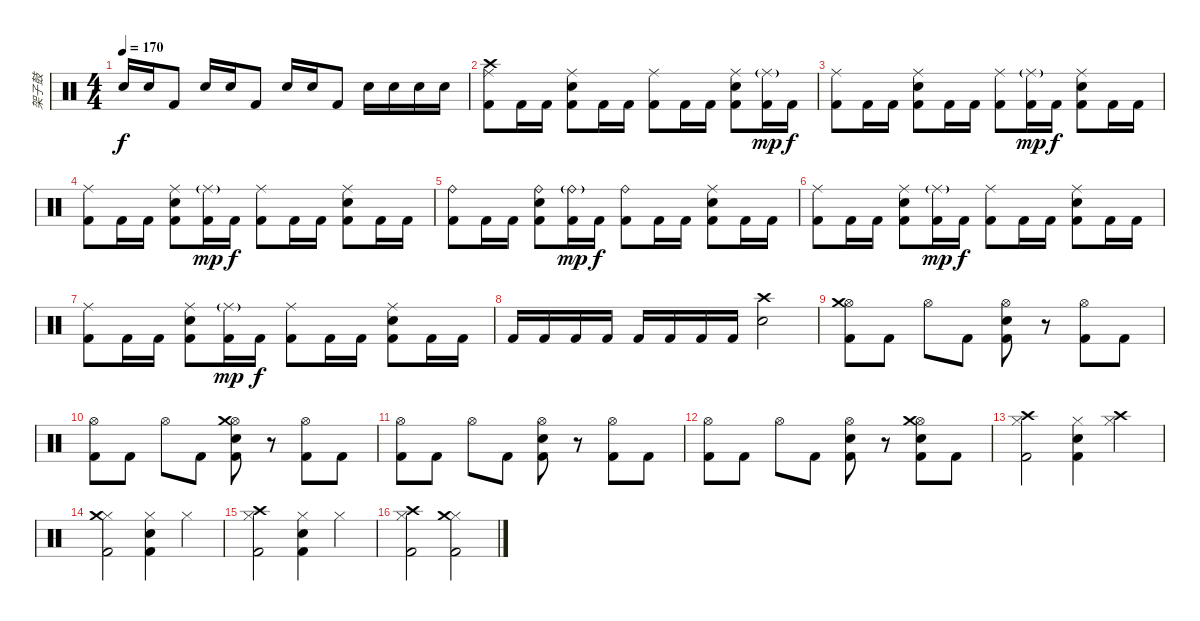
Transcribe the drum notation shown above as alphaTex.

\track ("架子鼓" "架子鼓") {instrument percussion}
\staff {score}
\articulation defaults
\ts (4 4)
\tempo 170
\clef neutral
\ks c "Snare (hit) 2".16{dy f} "Snare (hit) 2".16 "Kick (hit) 2".8 "Snare (hit) 2".16 "Snare (hit) 2".16 "Kick (hit) 2".8 "Snare (hit) 2".16 "Snare (hit) 2".16 "Kick (hit) 2".8 "Snare (hit) 2".16 "Snare (hit) 2".16 "Snare (hit) 2".16 "Snare (hit) 2".16
|
("Ride (middle)" "Kick (hit) 2" "Crash high (hit)").8 "Kick (hit) 2".16 "Kick (hit) 2".16 ("Ride (middle)" "Snare (hit) 2" "Kick (hit) 2").8 "Kick (hit) 2".16 "Kick (hit) 2".16 ("Ride (middle)" "Kick (hit) 2").8 "Kick (hit) 2".16 "Kick (hit) 2".16 ("Ride (middle)" "Snare (hit) 2" "Kick (hit) 2").8 ("Ride (middle)"{g} "Kick (hit) 2").16{dy mp} "Kick (hit) 2".16{dy f} |
("Ride (middle)" "Kick (hit) 2").8 "Kick (hit) 2".16 "Kick (hit) 2".16 ("Ride (middle)" "Snare (hit) 2" "Kick (hit) 2").8 "Kick (hit) 2".16 "Kick (hit) 2".16 ("Ride (middle)" "Kick (hit) 2").8 ("Ride (middle)"{g} "Kick (hit) 2").16{dy mp} "Kick (hit) 2".16{dy f} ("Ride (middle)" "Snare (hit) 2" "Kick (hit) 2").8 "Kick (hit) 2".16 "Kick (hit) 2".16 |
("Ride (middle)" "Kick (hit) 2").8 "Kick (hit) 2".16 "Kick (hit) 2".16 ("Ride (middle)" "Snare (hit) 2" "Kick (hit) 2").8 ("Ride (middle)"{g} "Kick (hit) 2").16{dy mp} "Kick (hit) 2".16{dy f} ("Ride (middle)" "Kick (hit) 2").8 "Kick (hit) 2".16 "Kick (hit) 2".16 ("Ride (middle)" "Snare (hit) 2" "Kick (hit) 2").8 "Kick (hit) 2".16 "Kick (hit) 2".16 |
("Ride (bell)" "Kick (hit) 2").8 "Kick (hit) 2".16 "Kick (hit) 2".16 ("Ride (bell)" "Snare (hit) 2" "Kick (hit) 2").8 ("Ride (bell)"{g} "Kick (hit) 2").16{dy mp} "Kick (hit) 2".16{dy f} ("Ride (bell)" "Kick (hit) 2").8 "Kick (hit) 2".16 "Kick (hit) 2".16 ("Ride (middle)" "Snare (hit) 2" "Kick (hit) 2").8 "Kick (hit) 2".16 "Kick (hit) 2".16 |
("Ride (middle)" "Kick (hit) 2").8 "Kick (hit) 2".16 "Kick (hit) 2".16 ("Ride (middle)" "Snare (hit) 2" "Kick (hit) 2").8 ("Ride (middle)"{g} "Kick (hit) 2").16{dy mp} "Kick (hit) 2".16{dy f} ("Ride (middle)" "Kick (hit) 2").8 "Kick (hit) 2".16 "Kick (hit) 2".16 ("Ride (middle)" "Snare (hit) 2" "Kick (hit) 2").8 "Kick (hit) 2".16 "Kick (hit) 2".16 |
("Ride (middle)" "Kick (hit) 2").8 "Kick (hit) 2".16 "Kick (hit) 2".16 ("Ride (middle)" "Snare (hit) 2" "Kick (hit) 2").8 ("Ride (middle)"{g} "Kick (hit) 2").16{dy mp} "Kick (hit) 2".16{dy f} ("Ride (middle)" "Kick (hit) 2").8 "Kick (hit) 2".16 "Kick (hit) 2".16 ("Ride (middle)" "Snare (hit) 2" "Kick (hit) 2").8 "Kick (hit) 2".16 "Kick (hit) 2".16 |
"Kick (hit) 2".16 "Kick (hit) 2".16 "Kick (hit) 2".16 "Kick (hit) 2".16 "Kick (hit) 2".16 "Kick (hit) 2".16 "Kick (hit) 2".16 "Kick (hit) 2".16 ("Snare (hit) 2" "Crash high (hit)").2 |
("Hi-Hat (open)" "Kick (hit) 2" "Crash medium (hit)").8 "Kick (hit) 2".8 "Hi-Hat (open)".8 "Kick (hit) 2".8 ("Hi-Hat (open)" "Snare (hit) 2" "Kick (hit) 2").8 r.8 ("Hi-Hat (open)" "Kick (hit) 2").8 "Kick (hit) 2".8 |
("Hi-Hat (open)" "Kick (hit) 2").8 "Kick (hit) 2".8 "Hi-Hat (open)".8 "Kick (hit) 2".8 ("Hi-Hat (open)" "Snare (hit) 2" "Kick (hit) 2" "Crash medium (hit)").8 r.8 ("Hi-Hat (open)" "Kick (hit) 2").8 "Kick (hit) 2".8 |
("Hi-Hat (open)" "Kick (hit) 2").8 "Kick (hit) 2".8 "Hi-Hat (open)".8 "Kick (hit) 2".8 ("Hi-Hat (open)" "Snare (hit) 2" "Kick (hit) 2").8 r.8 ("Hi-Hat (open)" "Kick (hit) 2").8 "Kick (hit) 2".8 |
("Hi-Hat (open)" "Kick (hit) 2").8 "Kick (hit) 2".8 "Hi-Hat (open)".8 "Kick (hit) 2".8 ("Hi-Hat (open)" "Snare (hit) 2" "Kick (hit) 2").8 r.8 ("Hi-Hat (open)" "Snare (hit) 2" "Kick (hit) 2" "Crash medium (hit)").8 "Kick (hit) 2".8 |
("Hi-Hat (closed)" "Kick (hit) 2" "Crash high (hit)").2 ("Hi-Hat (closed)" "Snare (hit) 2" "Kick (hit) 2").4 ("Hi-Hat (closed)" "Crash high (hit)").4 |
("Hi-Hat (closed)" "Kick (hit) 2" "Crash medium (hit)").2 ("Hi-Hat (closed)" "Snare (hit) 2" "Kick (hit) 2").4 "Hi-Hat (closed)".4 |
("Hi-Hat (closed)" "Kick (hit) 2" "Crash high (hit)").2 ("Hi-Hat (closed)" "Snare (hit) 2" "Kick (hit) 2").4 "Hi-Hat (closed)".4 |
("Hi-Hat (closed)" "Kick (hit) 2" "Crash high (hit)").2 ("Hi-Hat (closed)" "Kick (hit) 2" "Crash medium (hit)").2
